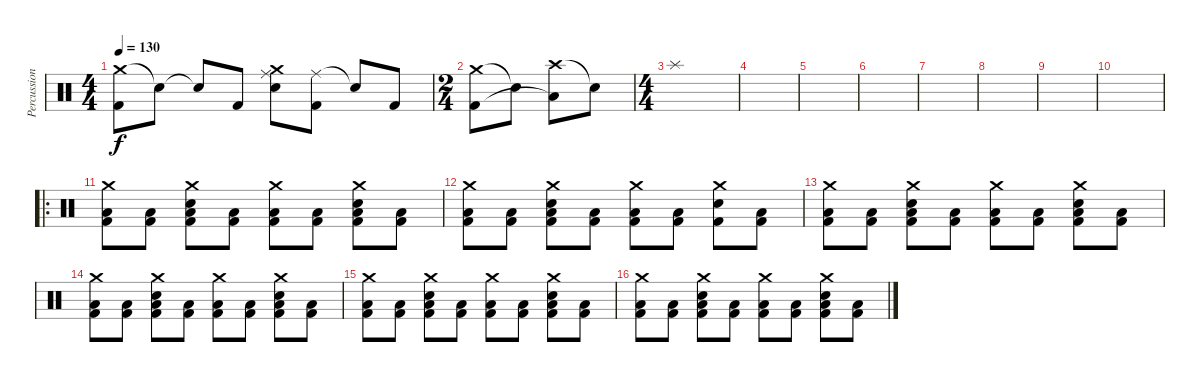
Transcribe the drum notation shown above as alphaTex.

\track ("Percussion" "Percussion") {instrument percussion}
\staff {score}
\articulation defaults
\ts (4 4)
\tempo 130
\clef neutral
\ks c
("Crash medium (hit)" "Kick (hit) 2").8{dy f} "Snare (hit)"{t}.8 "Snare (hit)"{t}.8 "Kick (hit) 2".8 ("Crash medium (hit)" "Ride (middle)" "Electric Snare (hit)").8 ("Ride (middle)" "Kick (hit) 2").8 "Snare (hit)"{t}.8 "Kick (hit) 2".8 |
\ts (2 4)
("Crash medium (hit)" "Kick (hit) 2").8 "Snare (hit)"{t}.8 ("Crash high (hit)" "Low Tom (hit)"{t}).8 "Snare (hit)"{t}.8 |
\ts (4 4)
"Splash (hit)".1 |
|
|
|
|
|
|
|
\ro
("Crash medium (hit)" "Low Floor Tom (hit)" "Kick (hit) 2").8 ("Low Floor Tom (hit)" "Kick (hit) 2").8 ("Crash medium (hit)" "Low Floor Tom (hit)" "Electric Snare (hit)" "Kick (hit) 2").8 ("Low Floor Tom (hit)" "Kick (hit) 2").8 ("Crash medium (hit)" "Low Floor Tom (hit)" "Kick (hit) 2").8 ("Low Floor Tom (hit)" "Kick (hit) 2").8 ("Crash medium (hit)" "Low Floor Tom (hit)" "Electric Snare (hit)" "Kick (hit) 2").8 ("Low Floor Tom (hit)" "Kick (hit) 2").8 |
("Crash medium (hit)" "Low Floor Tom (hit)" "Kick (hit) 2").8 ("Low Floor Tom (hit)" "Kick (hit) 2").8 ("Crash medium (hit)" "Low Floor Tom (hit)" "Electric Snare (hit)" "Kick (hit) 2").8 ("Low Floor Tom (hit)" "Kick (hit) 2").8 ("Crash medium (hit)" "Low Floor Tom (hit)" "Kick (hit) 2").8 ("Low Floor Tom (hit)" "Kick (hit) 2").8 ("Crash medium (hit)" "Electric Snare (hit)" "Kick (hit) 2").8 ("Low Floor Tom (hit)" "Kick (hit) 2").8 |
("Crash medium (hit)" "Low Floor Tom (hit)" "Kick (hit) 2").8 ("Low Floor Tom (hit)" "Kick (hit) 2").8 ("Crash medium (hit)" "Low Floor Tom (hit)" "Electric Snare (hit)" "Kick (hit) 2").8 ("Low Floor Tom (hit)" "Kick (hit) 2").8 ("Crash medium (hit)" "Low Floor Tom (hit)" "Kick (hit) 2").8 ("Low Floor Tom (hit)" "Kick (hit) 2").8 ("Crash medium (hit)" "Low Floor Tom (hit)" "Electric Snare (hit)" "Kick (hit) 2").8 ("Low Floor Tom (hit)" "Kick (hit) 2").8 |
("Crash medium (hit)" "Low Floor Tom (hit)" "Kick (hit) 2").8 ("Low Floor Tom (hit)" "Kick (hit) 2").8 ("Crash medium (hit)" "Low Floor Tom (hit)" "Electric Snare (hit)" "Kick (hit) 2").8 ("Low Floor Tom (hit)" "Kick (hit) 2").8 ("Crash medium (hit)" "Low Floor Tom (hit)" "Kick (hit) 2").8 ("Low Floor Tom (hit)" "Kick (hit) 2").8 ("Crash medium (hit)" "Low Floor Tom (hit)" "Electric Snare (hit)" "Kick (hit) 2").8 ("Low Floor Tom (hit)" "Kick (hit) 2").8 |
("Crash medium (hit)" "Low Floor Tom (hit)" "Kick (hit) 2").8 ("Low Floor Tom (hit)" "Kick (hit) 2").8 ("Crash medium (hit)" "Low Floor Tom (hit)" "Electric Snare (hit)" "Kick (hit) 2").8 ("Low Floor Tom (hit)" "Kick (hit) 2").8 ("Crash medium (hit)" "Low Floor Tom (hit)" "Kick (hit) 2").8 ("Low Floor Tom (hit)" "Kick (hit) 2").8 ("Crash medium (hit)" "Low Floor Tom (hit)" "Electric Snare (hit)" "Kick (hit) 2").8 ("Low Floor Tom (hit)" "Kick (hit) 2").8 |
("Crash medium (hit)" "Low Floor Tom (hit)" "Kick (hit) 2").8 ("Low Floor Tom (hit)" "Kick (hit) 2").8 ("Crash medium (hit)" "Low Floor Tom (hit)" "Electric Snare (hit)" "Kick (hit) 2").8 ("Low Floor Tom (hit)" "Kick (hit) 2").8 ("Crash medium (hit)" "Low Floor Tom (hit)" "Kick (hit) 2").8 ("Low Floor Tom (hit)" "Kick (hit) 2").8 ("Crash medium (hit)" "Low Floor Tom (hit)" "Electric Snare (hit)" "Kick (hit) 2").8 ("Low Floor Tom (hit)" "Kick (hit) 2").8
